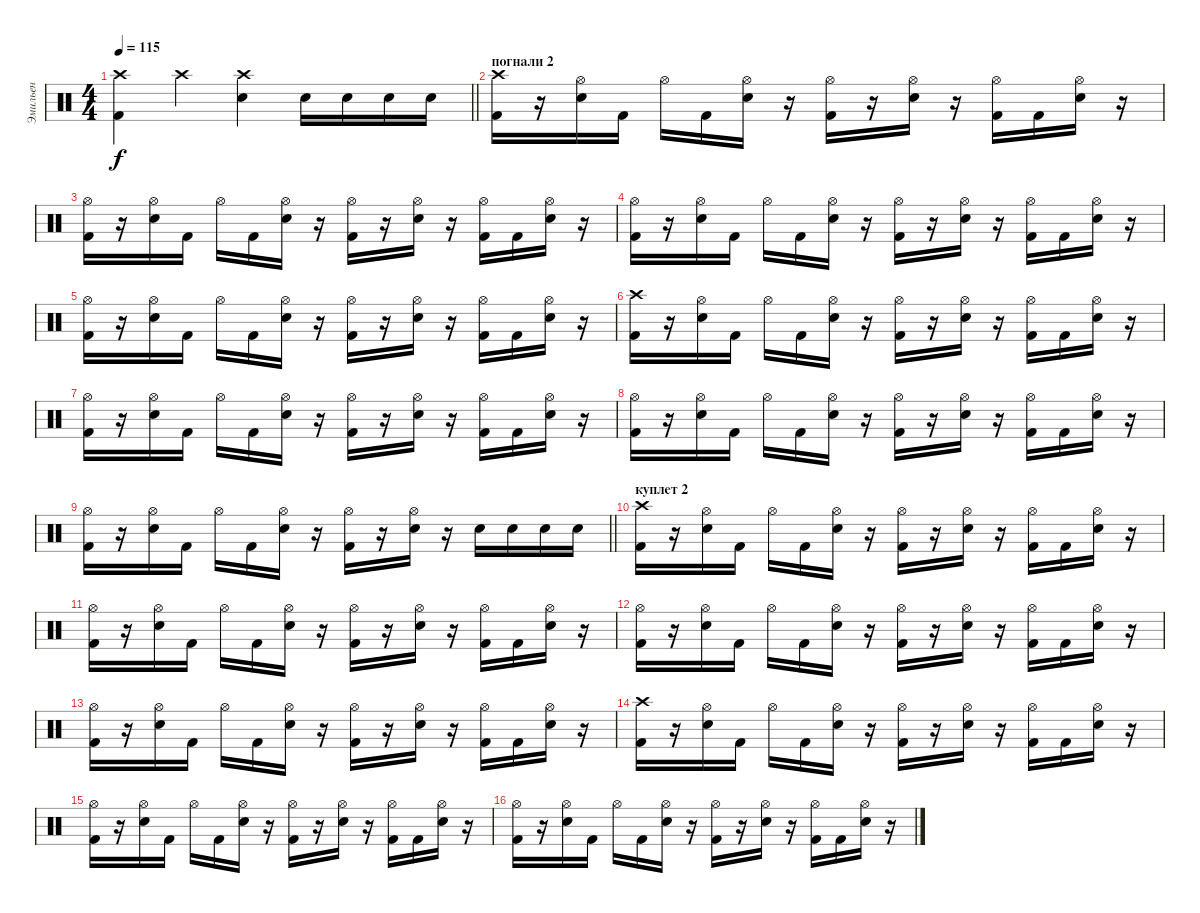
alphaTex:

\track ("Эмильен" "Эмильен") {instrument percussion}
\staff {score}
\articulation defaults
\ts (4 4)
\tempo 115
\clef neutral
\barLineRight lightlight
\ks c
("Crash high (hit)" "Kick (hit) 2").4{dy f} "Crash high (hit)".4 ("Crash high (hit)" "Snare (hit) 2").4 "Snare (hit) 2".16 "Snare (hit) 2".16 "Snare (hit) 2".16 "Snare (hit) 2".16 |
\section ("" "погнали 2")
("Crash high (hit)" "Kick (hit) 2").16 r.16 ("Hi-Hat (open)" "Snare (hit) 2").16 "Kick (hit) 2".16 "Hi-Hat (open)".16 "Kick (hit) 2".16 ("Hi-Hat (open)" "Snare (hit) 2").16 r.16 ("Hi-Hat (open)" "Kick (hit) 2").16 r.16 ("Hi-Hat (open)" "Snare (hit) 2").16 r.16 ("Hi-Hat (open)" "Kick (hit) 2").16 "Kick (hit) 2".16 ("Hi-Hat (open)" "Snare (hit) 2").16 r.16 |
("Hi-Hat (open)" "Kick (hit) 2").16 r.16 ("Hi-Hat (open)" "Snare (hit) 2").16 "Kick (hit) 2".16 "Hi-Hat (open)".16 "Kick (hit) 2".16 ("Hi-Hat (open)" "Snare (hit) 2").16 r.16 ("Hi-Hat (open)" "Kick (hit) 2").16 r.16 ("Hi-Hat (open)" "Snare (hit) 2").16 r.16 ("Hi-Hat (open)" "Kick (hit) 2").16 "Kick (hit) 2".16 ("Hi-Hat (open)" "Snare (hit) 2").16 r.16 |
("Hi-Hat (open)" "Kick (hit) 2").16 r.16 ("Hi-Hat (open)" "Snare (hit) 2").16 "Kick (hit) 2".16 "Hi-Hat (open)".16 "Kick (hit) 2".16 ("Hi-Hat (open)" "Snare (hit) 2").16 r.16 ("Hi-Hat (open)" "Kick (hit) 2").16 r.16 ("Hi-Hat (open)" "Snare (hit) 2").16 r.16 ("Hi-Hat (open)" "Kick (hit) 2").16 "Kick (hit) 2".16 ("Hi-Hat (open)" "Snare (hit) 2").16 r.16 |
("Hi-Hat (open)" "Kick (hit) 2").16 r.16 ("Hi-Hat (open)" "Snare (hit) 2").16 "Kick (hit) 2".16 "Hi-Hat (open)".16 "Kick (hit) 2".16 ("Hi-Hat (open)" "Snare (hit) 2").16 r.16 ("Hi-Hat (open)" "Kick (hit) 2").16 r.16 ("Hi-Hat (open)" "Snare (hit) 2").16 r.16 ("Hi-Hat (open)" "Kick (hit) 2").16 "Kick (hit) 2".16 ("Hi-Hat (open)" "Snare (hit) 2").16 r.16 |
("Crash high (hit)" "Kick (hit) 2").16 r.16 ("Hi-Hat (open)" "Snare (hit) 2").16 "Kick (hit) 2".16 "Hi-Hat (open)".16 "Kick (hit) 2".16 ("Hi-Hat (open)" "Snare (hit) 2").16 r.16 ("Hi-Hat (open)" "Kick (hit) 2").16 r.16 ("Hi-Hat (open)" "Snare (hit) 2").16 r.16 ("Hi-Hat (open)" "Kick (hit) 2").16 "Kick (hit) 2".16 ("Hi-Hat (open)" "Snare (hit) 2").16 r.16 |
("Hi-Hat (open)" "Kick (hit) 2").16 r.16 ("Hi-Hat (open)" "Snare (hit) 2").16 "Kick (hit) 2".16 "Hi-Hat (open)".16 "Kick (hit) 2".16 ("Hi-Hat (open)" "Snare (hit) 2").16 r.16 ("Hi-Hat (open)" "Kick (hit) 2").16 r.16 ("Hi-Hat (open)" "Snare (hit) 2").16 r.16 ("Hi-Hat (open)" "Kick (hit) 2").16 "Kick (hit) 2".16 ("Hi-Hat (open)" "Snare (hit) 2").16 r.16 |
("Hi-Hat (open)" "Kick (hit) 2").16 r.16 ("Hi-Hat (open)" "Snare (hit) 2").16 "Kick (hit) 2".16 "Hi-Hat (open)".16 "Kick (hit) 2".16 ("Hi-Hat (open)" "Snare (hit) 2").16 r.16 ("Hi-Hat (open)" "Kick (hit) 2").16 r.16 ("Hi-Hat (open)" "Snare (hit) 2").16 r.16 ("Hi-Hat (open)" "Kick (hit) 2").16 "Kick (hit) 2".16 ("Hi-Hat (open)" "Snare (hit) 2").16 r.16 |
\barLineRight lightlight
("Hi-Hat (open)" "Kick (hit) 2").16 r.16 ("Hi-Hat (open)" "Snare (hit) 2").16 "Kick (hit) 2".16 "Hi-Hat (open)".16 "Kick (hit) 2".16 ("Hi-Hat (open)" "Snare (hit) 2").16 r.16 ("Hi-Hat (open)" "Kick (hit) 2").16 r.16 ("Hi-Hat (open)" "Snare (hit) 2").16 r.16 "Snare (hit) 2".16 "Snare (hit) 2".16 "Snare (hit) 2".16 "Snare (hit) 2".16 |
\section ("" "куплет 2")
("Crash high (hit)" "Kick (hit) 2").16 r.16 ("Hi-Hat (open)" "Snare (hit) 2").16 "Kick (hit) 2".16 "Hi-Hat (open)".16 "Kick (hit) 2".16 ("Hi-Hat (open)" "Snare (hit) 2").16 r.16 ("Hi-Hat (open)" "Kick (hit) 2").16 r.16 ("Hi-Hat (open)" "Snare (hit) 2").16 r.16 ("Hi-Hat (open)" "Kick (hit) 2").16 "Kick (hit) 2".16 ("Hi-Hat (open)" "Snare (hit) 2").16 r.16 |
("Hi-Hat (open)" "Kick (hit) 2").16 r.16 ("Hi-Hat (open)" "Snare (hit) 2").16 "Kick (hit) 2".16 "Hi-Hat (open)".16 "Kick (hit) 2".16 ("Hi-Hat (open)" "Snare (hit) 2").16 r.16 ("Hi-Hat (open)" "Kick (hit) 2").16 r.16 ("Hi-Hat (open)" "Snare (hit) 2").16 r.16 ("Hi-Hat (open)" "Kick (hit) 2").16 "Kick (hit) 2".16 ("Hi-Hat (open)" "Snare (hit) 2").16 r.16 |
("Hi-Hat (open)" "Kick (hit) 2").16 r.16 ("Hi-Hat (open)" "Snare (hit) 2").16 "Kick (hit) 2".16 "Hi-Hat (open)".16 "Kick (hit) 2".16 ("Hi-Hat (open)" "Snare (hit) 2").16 r.16 ("Hi-Hat (open)" "Kick (hit) 2").16 r.16 ("Hi-Hat (open)" "Snare (hit) 2").16 r.16 ("Hi-Hat (open)" "Kick (hit) 2").16 "Kick (hit) 2".16 ("Hi-Hat (open)" "Snare (hit) 2").16 r.16 |
("Hi-Hat (open)" "Kick (hit) 2").16 r.16 ("Hi-Hat (open)" "Snare (hit) 2").16 "Kick (hit) 2".16 "Hi-Hat (open)".16 "Kick (hit) 2".16 ("Hi-Hat (open)" "Snare (hit) 2").16 r.16 ("Hi-Hat (open)" "Kick (hit) 2").16 r.16 ("Hi-Hat (open)" "Snare (hit) 2").16 r.16 ("Hi-Hat (open)" "Kick (hit) 2").16 "Kick (hit) 2".16 ("Hi-Hat (open)" "Snare (hit) 2").16 r.16 |
("Crash high (hit)" "Kick (hit) 2").16 r.16 ("Hi-Hat (open)" "Snare (hit) 2").16 "Kick (hit) 2".16 "Hi-Hat (open)".16 "Kick (hit) 2".16 ("Hi-Hat (open)" "Snare (hit) 2").16 r.16 ("Hi-Hat (open)" "Kick (hit) 2").16 r.16 ("Hi-Hat (open)" "Snare (hit) 2").16 r.16 ("Hi-Hat (open)" "Kick (hit) 2").16 "Kick (hit) 2".16 ("Hi-Hat (open)" "Snare (hit) 2").16 r.16 |
("Hi-Hat (open)" "Kick (hit) 2").16 r.16 ("Hi-Hat (open)" "Snare (hit) 2").16 "Kick (hit) 2".16 "Hi-Hat (open)".16 "Kick (hit) 2".16 ("Hi-Hat (open)" "Snare (hit) 2").16 r.16 ("Hi-Hat (open)" "Kick (hit) 2").16 r.16 ("Hi-Hat (open)" "Snare (hit) 2").16 r.16 ("Hi-Hat (open)" "Kick (hit) 2").16 "Kick (hit) 2".16 ("Hi-Hat (open)" "Snare (hit) 2").16 r.16 |
("Hi-Hat (open)" "Kick (hit) 2").16 r.16 ("Hi-Hat (open)" "Snare (hit) 2").16 "Kick (hit) 2".16 "Hi-Hat (open)".16 "Kick (hit) 2".16 ("Hi-Hat (open)" "Snare (hit) 2").16 r.16 ("Hi-Hat (open)" "Kick (hit) 2").16 r.16 ("Hi-Hat (open)" "Snare (hit) 2").16 r.16 ("Hi-Hat (open)" "Kick (hit) 2").16 "Kick (hit) 2".16 ("Hi-Hat (open)" "Snare (hit) 2").16 r.16
